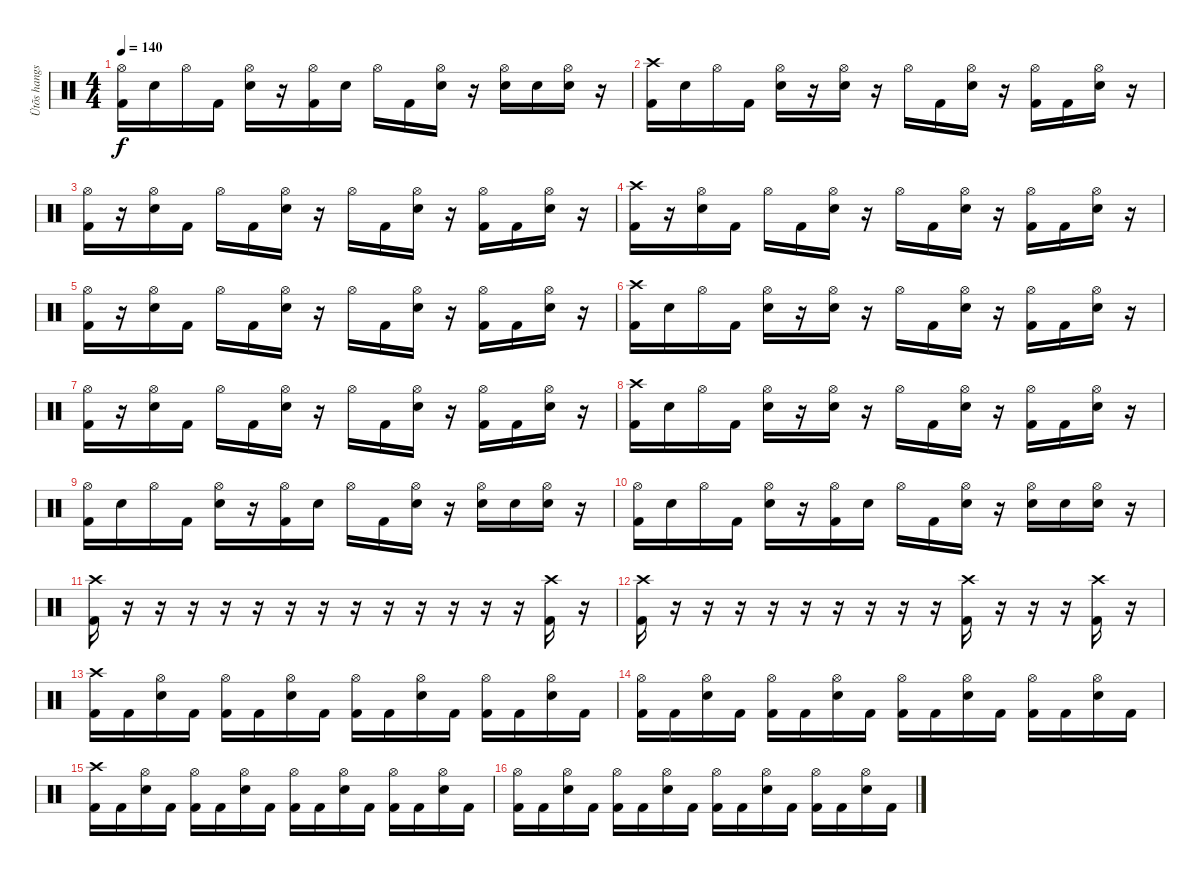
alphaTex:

\track ("Ütõs hangszer" "Ütõs hangs") {instrument percussion}
\staff {score}
\articulation defaults
\ts (4 4)
\tempo 140
\clef neutral
\ks c
("Hi-Hat (open)" "Kick (hit) 2").16{dy f} "Snare (hit) 2".16 "Hi-Hat (open)".16 "Kick (hit) 2".16 ("Hi-Hat (open)" "Snare (hit) 2").16 r.16 ("Hi-Hat (open)" "Kick (hit) 2").16 "Snare (hit) 2".16 "Hi-Hat (open)".16 "Kick (hit) 2".16 ("Hi-Hat (open)" "Snare (hit) 2").16 r.16 ("Hi-Hat (open)" "Snare (hit) 2").16 "Snare (hit) 2".16 ("Hi-Hat (open)" "Snare (hit) 2").16 r.16 |
("Crash high (hit)" "Kick (hit) 2").16 "Snare (hit) 2".16 "Hi-Hat (open)".16 "Kick (hit) 2".16 ("Hi-Hat (open)" "Snare (hit) 2").16 r.16 ("Hi-Hat (open)" "Snare (hit) 2").16 r.16 "Hi-Hat (open)".16 "Kick (hit) 2".16 ("Hi-Hat (open)" "Snare (hit) 2").16 r.16 ("Hi-Hat (open)" "Kick (hit) 2").16 "Kick (hit) 2".16 ("Hi-Hat (open)" "Snare (hit) 2").16 r.16 |
("Hi-Hat (open)" "Kick (hit) 2").16 r.16 ("Hi-Hat (open)" "Snare (hit) 2").16 "Kick (hit) 2".16 "Hi-Hat (open)".16 "Kick (hit) 2".16 ("Hi-Hat (open)" "Snare (hit) 2").16 r.16 "Hi-Hat (open)".16 "Kick (hit) 2".16 ("Hi-Hat (open)" "Snare (hit) 2").16 r.16 ("Hi-Hat (open)" "Kick (hit) 2").16 "Kick (hit) 2".16 ("Hi-Hat (open)" "Snare (hit) 2").16 r.16 |
("Crash high (hit)" "Kick (hit) 2").16 r.16 ("Hi-Hat (open)" "Snare (hit) 2").16 "Kick (hit) 2".16 "Hi-Hat (open)".16 "Kick (hit) 2".16 ("Hi-Hat (open)" "Snare (hit) 2").16 r.16 "Hi-Hat (open)".16 "Kick (hit) 2".16 ("Hi-Hat (open)" "Snare (hit) 2").16 r.16 ("Hi-Hat (open)" "Kick (hit) 2").16 "Kick (hit) 2".16 ("Hi-Hat (open)" "Snare (hit) 2").16 r.16 |
("Hi-Hat (open)" "Kick (hit) 2").16 r.16 ("Hi-Hat (open)" "Snare (hit) 2").16 "Kick (hit) 2".16 "Hi-Hat (open)".16 "Kick (hit) 2".16 ("Hi-Hat (open)" "Snare (hit) 2").16 r.16 "Hi-Hat (open)".16 "Kick (hit) 2".16 ("Hi-Hat (open)" "Snare (hit) 2").16 r.16 ("Hi-Hat (open)" "Kick (hit) 2").16 "Kick (hit) 2".16 ("Hi-Hat (open)" "Snare (hit) 2").16 r.16 |
("Crash high (hit)" "Kick (hit) 2").16 "Snare (hit) 2".16 "Hi-Hat (open)".16 "Kick (hit) 2".16 ("Hi-Hat (open)" "Snare (hit) 2").16 r.16 ("Hi-Hat (open)" "Snare (hit) 2").16 r.16 "Hi-Hat (open)".16 "Kick (hit) 2".16 ("Hi-Hat (open)" "Snare (hit) 2").16 r.16 ("Hi-Hat (open)" "Kick (hit) 2").16 "Kick (hit) 2".16 ("Hi-Hat (open)" "Snare (hit) 2").16 r.16 |
("Hi-Hat (open)" "Kick (hit) 2").16 r.16 ("Hi-Hat (open)" "Snare (hit) 2").16 "Kick (hit) 2".16 "Hi-Hat (open)".16 "Kick (hit) 2".16 ("Hi-Hat (open)" "Snare (hit) 2").16 r.16 "Hi-Hat (open)".16 "Kick (hit) 2".16 ("Hi-Hat (open)" "Snare (hit) 2").16 r.16 ("Hi-Hat (open)" "Kick (hit) 2").16 "Kick (hit) 2".16 ("Hi-Hat (open)" "Snare (hit) 2").16 r.16 |
("Crash high (hit)" "Kick (hit) 2").16 "Snare (hit) 2".16 "Hi-Hat (open)".16 "Kick (hit) 2".16 ("Hi-Hat (open)" "Snare (hit) 2").16 r.16 ("Hi-Hat (open)" "Snare (hit) 2").16 r.16 "Hi-Hat (open)".16 "Kick (hit) 2".16 ("Hi-Hat (open)" "Snare (hit) 2").16 r.16 ("Hi-Hat (open)" "Kick (hit) 2").16 "Kick (hit) 2".16 ("Hi-Hat (open)" "Snare (hit) 2").16 r.16 |
("Hi-Hat (open)" "Kick (hit) 2").16 "Snare (hit) 2".16 "Hi-Hat (open)".16 "Kick (hit) 2".16 ("Hi-Hat (open)" "Snare (hit) 2").16 r.16 ("Hi-Hat (open)" "Kick (hit) 2").16 "Snare (hit) 2".16 "Hi-Hat (open)".16 "Kick (hit) 2".16 ("Hi-Hat (open)" "Snare (hit) 2").16 r.16 ("Hi-Hat (open)" "Snare (hit) 2").16 "Snare (hit) 2".16 ("Hi-Hat (open)" "Snare (hit) 2").16 r.16 |
("Hi-Hat (open)" "Kick (hit) 2").16 "Snare (hit) 2".16 "Hi-Hat (open)".16 "Kick (hit) 2".16 ("Hi-Hat (open)" "Snare (hit) 2").16 r.16 ("Hi-Hat (open)" "Kick (hit) 2").16 "Snare (hit) 2".16 "Hi-Hat (open)".16 "Kick (hit) 2".16 ("Hi-Hat (open)" "Snare (hit) 2").16 r.16 ("Hi-Hat (open)" "Snare (hit) 2").16 "Snare (hit) 2".16 ("Hi-Hat (open)" "Snare (hit) 2").16 r.16 |
("Crash high (hit)" "Kick (hit) 2").16 r.16 r.16 r.16 r.16 r.16 r.16 r.16 r.16 r.16 r.16 r.16 r.16 r.16 ("Crash high (hit)" "Kick (hit) 2").16 r.16 |
("Crash high (hit)" "Kick (hit) 2").16 r.16 r.16 r.16 r.16 r.16 r.16 r.16 r.16 r.16 ("Crash high (hit)" "Kick (hit) 2").16 r.16 r.16 r.16 ("Crash high (hit)" "Kick (hit) 2").16 r.16 |
("Crash high (hit)" "Kick (hit) 2").16 "Kick (hit) 2".16 ("Hi-Hat (open)" "Snare (hit) 2").16 "Kick (hit) 2".16 ("Hi-Hat (open)" "Kick (hit) 2").16 "Kick (hit) 2".16 ("Hi-Hat (open)" "Snare (hit) 2").16 "Kick (hit) 2".16 ("Hi-Hat (open)" "Kick (hit) 2").16 "Kick (hit) 2".16 ("Hi-Hat (open)" "Snare (hit) 2").16 "Kick (hit) 2".16 ("Hi-Hat (open)" "Kick (hit) 2").16 "Kick (hit) 2".16 ("Hi-Hat (open)" "Snare (hit) 2").16 "Kick (hit) 2".16 |
("Hi-Hat (open)" "Kick (hit) 2").16 "Kick (hit) 2".16 ("Hi-Hat (open)" "Snare (hit) 2").16 "Kick (hit) 2".16 ("Hi-Hat (open)" "Kick (hit) 2").16 "Kick (hit) 2".16 ("Hi-Hat (open)" "Snare (hit) 2").16 "Kick (hit) 2".16 ("Hi-Hat (open)" "Kick (hit) 2").16 "Kick (hit) 2".16 ("Hi-Hat (open)" "Snare (hit) 2").16 "Kick (hit) 2".16 ("Hi-Hat (open)" "Kick (hit) 2").16 "Kick (hit) 2".16 ("Hi-Hat (open)" "Snare (hit) 2").16 "Kick (hit) 2".16 |
("Crash high (hit)" "Kick (hit) 2").16 "Kick (hit) 2".16 ("Hi-Hat (open)" "Snare (hit) 2").16 "Kick (hit) 2".16 ("Hi-Hat (open)" "Kick (hit) 2").16 "Kick (hit) 2".16 ("Hi-Hat (open)" "Snare (hit) 2").16 "Kick (hit) 2".16 ("Hi-Hat (open)" "Kick (hit) 2").16 "Kick (hit) 2".16 ("Hi-Hat (open)" "Snare (hit) 2").16 "Kick (hit) 2".16 ("Hi-Hat (open)" "Kick (hit) 2").16 "Kick (hit) 2".16 ("Hi-Hat (open)" "Snare (hit) 2").16 "Kick (hit) 2".16 |
("Hi-Hat (open)" "Kick (hit) 2").16 "Kick (hit) 2".16 ("Hi-Hat (open)" "Snare (hit) 2").16 "Kick (hit) 2".16 ("Hi-Hat (open)" "Kick (hit) 2").16 "Kick (hit) 2".16 ("Hi-Hat (open)" "Snare (hit) 2").16 "Kick (hit) 2".16 ("Hi-Hat (open)" "Kick (hit) 2").16 "Kick (hit) 2".16 ("Hi-Hat (open)" "Snare (hit) 2").16 "Kick (hit) 2".16 ("Hi-Hat (open)" "Kick (hit) 2").16 "Kick (hit) 2".16 ("Hi-Hat (open)" "Snare (hit) 2").16 "Kick (hit) 2".16
